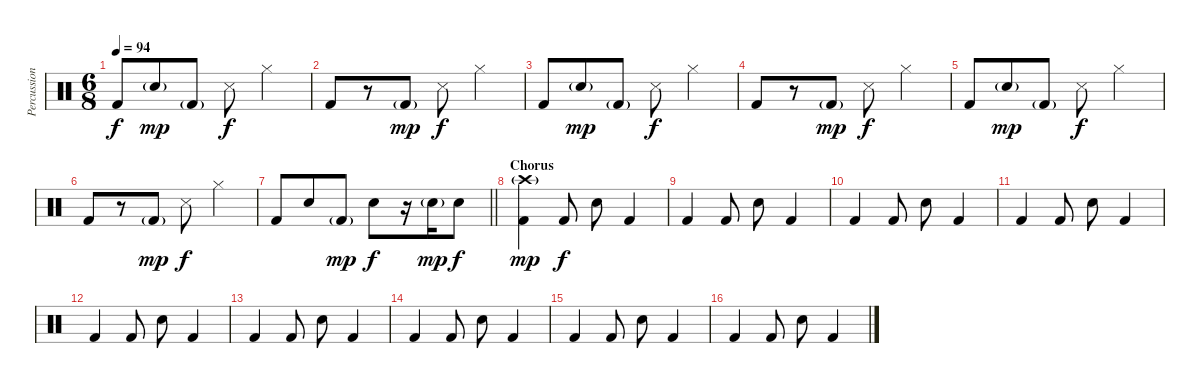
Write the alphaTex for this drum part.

\track ("Percussion" "Percussion") {instrument percussion}
\staff {score}
\articulation defaults
\ts (6 8)
\tempo 94
\clef neutral
\ks c "Kick (hit) 2".8{dy f} "Snare (hit) 2"{g}.8{dy mp} "Kick (hit) 2"{g}.8 "Snare (side stick) 3".8{dy f} "Hi-Hat (closed)".4
|
"Kick (hit) 2".8 r.8 "Kick (hit) 2"{g}.8{dy mp} "Snare (side stick) 3".8{dy f} "Hi-Hat (closed)".4 |
"Kick (hit) 2".8 "Snare (hit) 2"{g}.8{dy mp} "Kick (hit) 2"{g}.8 "Snare (side stick) 3".8{dy f} "Hi-Hat (closed)".4 |
"Kick (hit) 2".8 r.8 "Kick (hit) 2"{g}.8{dy mp} "Snare (side stick) 3".8{dy f} "Hi-Hat (closed)".4 |
"Kick (hit) 2".8 "Snare (hit) 2"{g}.8{dy mp} "Kick (hit) 2"{g}.8 "Snare (side stick) 3".8{dy f} "Hi-Hat (closed)".4 |
"Kick (hit) 2".8 r.8 "Kick (hit) 2"{g}.8{dy mp} "Snare (side stick) 3".8{dy f} "Hi-Hat (closed)".4 |
\barLineRight lightlight "Kick (hit) 2".8 "Snare (hit) 2".8 "Kick (hit) 2"{g}.8{dy mp} "Snare (hit) 2".8{dy f}
r.16 "Snare (hit) 2"{g}.16{dy mp} "Snare (hit) 2".8{dy f} |
\section ("" "Chorus")
("Crash high (hit)"{g} "Kick (hit) 2").4{dy mp} "Kick (hit) 2".8{dy f} "Snare (hit) 2".8 "Kick (hit) 2".4 |
"Kick (hit) 2".4 "Kick (hit) 2".8 "Snare (hit) 2".8 "Kick (hit) 2".4 |
"Kick (hit) 2".4 "Kick (hit) 2".8 "Snare (hit) 2".8 "Kick (hit) 2".4 |
"Kick (hit) 2".4 "Kick (hit) 2".8 "Snare (hit) 2".8 "Kick (hit) 2".4 |
"Kick (hit) 2".4 "Kick (hit) 2".8 "Snare (hit) 2".8 "Kick (hit) 2".4 |
"Kick (hit) 2".4 "Kick (hit) 2".8 "Snare (hit) 2".8 "Kick (hit) 2".4 |
"Kick (hit) 2".4 "Kick (hit) 2".8 "Snare (hit) 2".8 "Kick (hit) 2".4 |
"Kick (hit) 2".4 "Kick (hit) 2".8 "Snare (hit) 2".8 "Kick (hit) 2".4 |
"Kick (hit) 2".4 "Kick (hit) 2".8 "Snare (hit) 2".8 "Kick (hit) 2".4
